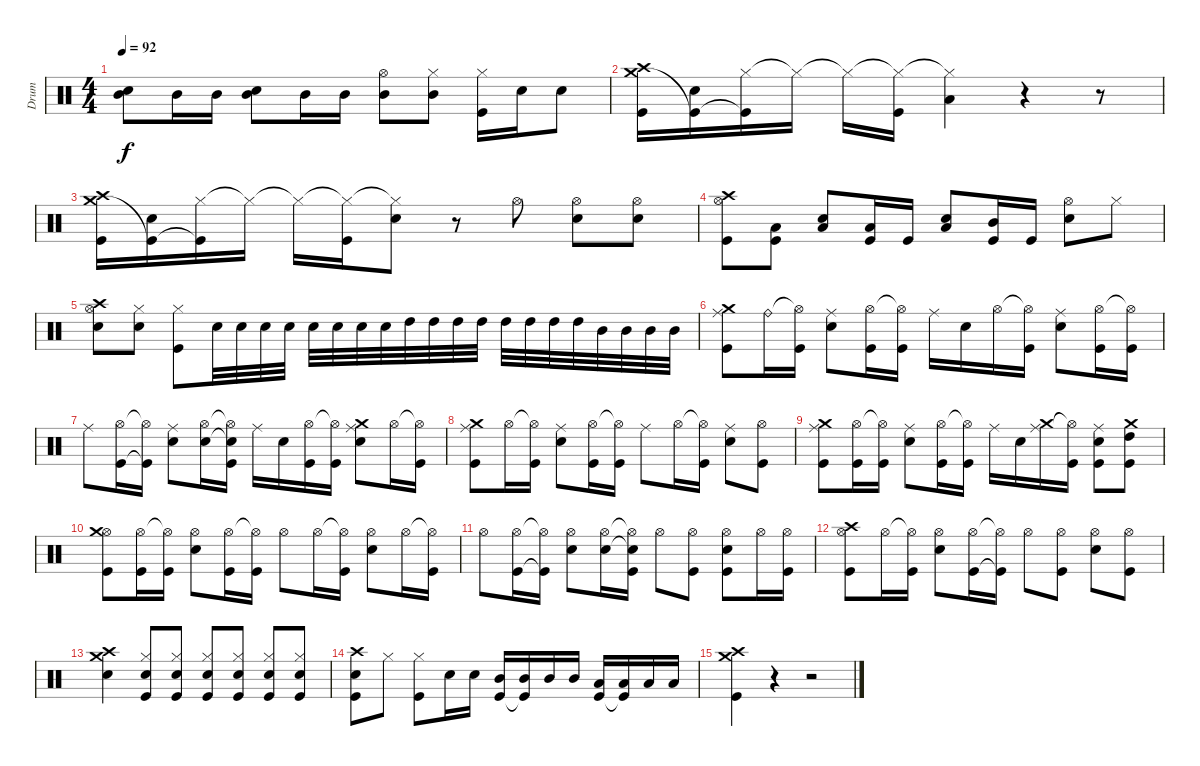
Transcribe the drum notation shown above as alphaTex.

\track ("Drum" "Drum") {instrument percussion}
\staff {score}
\articulation defaults
\ts (4 4)
\tempo 92
\clef neutral
\ks c
("Mid Tom (hit)" "Snare (hit) 2").8{dy f} "Mid Tom (hit)".16 "Mid Tom (hit)".16 ("Mid Tom (hit)" "Snare (hit) 2").8 "Mid Tom (hit)".16 "Mid Tom (hit)".16 ("Hi-Hat (open)" "Mid Tom (hit)").8 ("Hi-Hat (closed)" "Mid Tom (hit)").8 ("Hi-Hat (closed)" "Kick (hit)").16 "Snare (hit) 2".16 "Snare (hit) 2".8 |
("Crash high (hit)" "Crash medium (hit)" "Kick (hit)").16 ("Snare (hit) 2" "Kick (hit)"{t}).16 ("Hi-Hat (closed)" "Kick (hit)"{t}).16 "Hi-Hat (closed)"{t}.16 "Hi-Hat (closed)"{t}.16 ("Hi-Hat (closed)"{t} "Kick (hit)").16 ("Hi-Hat (closed)"{t} "Low Tom (hit)").4 r.4 r.8 |
("Crash high (hit)" "Crash medium (hit)" "Kick (hit)").16 ("Snare (hit) 2" "Kick (hit)"{t}).16 ("Hi-Hat (closed)" "Kick (hit)"{t}).16 "Hi-Hat (closed)"{t}.16 "Hi-Hat (closed)"{t}.16 ("Hi-Hat (closed)"{t} "Kick (hit)").16 ("Hi-Hat (closed)"{t} "Snare (hit) 2").8 r.8 "Hi-Hat (open)".8 ("Hi-Hat (open)" "Snare (hit) 2").8 ("Hi-Hat (open)" "Snare (hit) 2").8 |
("Crash high (hit)" "Hi-Hat (open)" "Kick (hit)").8 ("Low Tom (hit)" "Kick (hit)").8 ("Low Tom (hit)" "Snare (hit) 2").8 ("Low Tom (hit)" "Kick (hit)").16 "Kick (hit)".16 ("Low Tom (hit)" "Snare (hit) 2").8 ("Mid Tom (hit)" "Kick (hit)").16 "Kick (hit)".16 ("Hi-Hat (open)" "Snare (hit) 2").8 "Hi-Hat (closed)".8 |
("Crash high (hit)" "Hi-Hat (open)" "Snare (hit) 2").8 ("Hi-Hat (closed)" "Snare (hit) 2").8 ("Hi-Hat (closed)" "Kick (hit)").8 "Snare (hit) 2".32 "Snare (hit) 2".32 "Snare (hit) 2".32 "Snare (hit) 2".32 "Snare (hit) 2".32 "Snare (hit) 2".32 "Snare (hit) 2".32 "Snare (hit) 2".32 "High Tom (hit)".32 "High Tom (hit)".32 "High Tom (hit)".32 "High Tom (hit)".32 "High Tom (hit)".32 "High Tom (hit)".32 "High Tom (hit)".32 "High Tom (hit)".32 "Mid Tom (hit)".32 "Mid Tom (hit)".32 "Mid Tom (hit)".32 "Mid Tom (hit)".32 |
("Ride (middle)" "Crash medium (hit)" "Kick (hit)").8 "Ride (bell)".16 ("Hi-Hat (open)"{t} "Kick (hit)").16 ("Ride (middle)" "Snare (hit) 2").8 ("Hi-Hat (open)" "Kick (hit)").16 ("Hi-Hat (open)"{t} "Kick (hit)").16 "Ride (middle)".16 "Snare (hit) 2".16 "Hi-Hat (open)".16 ("Hi-Hat (open)"{t} "Kick (hit)").16 ("Ride (middle)" "Snare (hit) 2").8 ("Hi-Hat (open)" "Kick (hit)").16 ("Hi-Hat (open)"{t} "Kick (hit)").16 |
"Ride (middle)".8 ("Hi-Hat (open)" "Kick (hit)").16 ("Hi-Hat (open)"{t} "Kick (hit)"{t}).16 ("Ride (middle)" "Snare (hit) 2").8 ("Hi-Hat (open)" "Snare (hit) 2").16 ("Hi-Hat (open)"{t} "Snare (hit) 2"{t} "Kick (hit)").16 "Ride (middle)".16 "Snare (hit) 2".16 ("Hi-Hat (open)" "Kick (hit)").16 ("Hi-Hat (open)"{t} "Kick (hit)").16 ("Ride (middle)" "Crash medium (hit)" "Snare (hit) 2").8 "Hi-Hat (open)".16 ("Hi-Hat (open)"{t} "Kick (hit)").16 |
("Ride (middle)" "Crash medium (hit)" "Kick (hit)").8 "Hi-Hat (open)".16 ("Hi-Hat (open)"{t} "Kick (hit)").16 ("Ride (middle)" "Snare (hit) 2").8 ("Hi-Hat (open)" "Kick (hit)").16 ("Hi-Hat (open)"{t} "Kick (hit)").16 "Ride (middle)".8 "Hi-Hat (open)".16 ("Hi-Hat (open)"{t} "Kick (hit)").16 ("Ride (middle)" "Snare (hit) 2").8 ("Hi-Hat (open)" "Kick (hit)").8 |
("Ride (middle)" "Crash medium (hit)" "Kick (hit)").8 ("Hi-Hat (open)" "Kick (hit)").16 ("Hi-Hat (open)"{t} "Kick (hit)").16 ("Ride (middle)" "Snare (hit) 2").8 ("Hi-Hat (open)" "Kick (hit)").16 ("Hi-Hat (open)"{t} "Kick (hit)").16 "Ride (middle)".16 "Snare (hit) 2".16 ("Ride (middle)" "Crash medium (hit)").16 ("Hi-Hat (open)"{t} "Kick (hit)").16 ("Ride (middle)" "Snare (hit) 2" "Kick (hit)").8 ("Crash medium (hit)" "High Tom (hit)" "Kick (hit)").8 |
("Hi-Hat (open)" "Crash medium (hit)" "Kick (hit)").8 ("Hi-Hat (open)" "Kick (hit)").16 ("Hi-Hat (open)"{t} "Kick (hit)").16 ("Hi-Hat (open)" "Snare (hit) 2").8 ("Hi-Hat (open)" "Kick (hit)").16 ("Hi-Hat (open)"{t} "Kick (hit)").16 "Hi-Hat (open)".8 "Hi-Hat (open)".16 ("Hi-Hat (open)"{t} "Kick (hit)").16 ("Hi-Hat (open)" "Snare (hit) 2").8 "Hi-Hat (open)".16 ("Hi-Hat (open)"{t} "Kick (hit)").16 |
"Hi-Hat (open)".8 ("Hi-Hat (open)" "Kick (hit)").16 ("Hi-Hat (open)"{t} "Kick (hit)"{t}).16 ("Hi-Hat (open)" "Snare (hit) 2").8 ("Hi-Hat (open)" "Snare (hit) 2").16 ("Hi-Hat (open)"{t} "Snare (hit) 2"{t} "Kick (hit)").16 "Hi-Hat (open)".8 ("Hi-Hat (open)" "Kick (hit)").8 ("Hi-Hat (open)" "Snare (hit) 2" "Kick (hit)").8 "Hi-Hat (open)".16 ("Hi-Hat (open)" "Kick (hit)").16 |
("Hi-Hat (open)" "Crash high (hit)" "Kick (hit)").8 "Hi-Hat (open)".16 ("Hi-Hat (open)"{t} "Kick (hit)").16 ("Hi-Hat (open)" "Snare (hit) 2").8 ("Hi-Hat (open)" "Kick (hit)").16 ("Hi-Hat (open)"{t} "Kick (hit)"{t}).16 "Hi-Hat (open)".8 ("Hi-Hat (open)" "Kick (hit)").8 ("Hi-Hat (open)" "Snare (hit) 2").8 ("Hi-Hat (open)" "Kick (hit)").8 |
("Crash high (hit)" "Crash medium (hit)" "Snare (hit) 2").4 ("Hi-Hat (closed)" "Snare (hit) 2" "Kick (hit)").8 ("Hi-Hat (closed)" "Snare (hit) 2" "Kick (hit)").8 ("Hi-Hat (closed)" "Snare (hit) 2" "Kick (hit)").8 ("Hi-Hat (closed)" "Snare (hit) 2" "Kick (hit)").8 ("Hi-Hat (closed)" "Snare (hit) 2" "Kick (hit)").8 ("Hi-Hat (closed)" "Snare (hit) 2" "Kick (hit)").8 |
("Crash high (hit)" "Snare (hit) 2" "Kick (hit)").8 "Hi-Hat (closed)".8 ("Hi-Hat (closed)" "Kick (hit)").8 "Snare (hit) 2".16 "Snare (hit) 2".16 ("Mid Tom (hit)" "Kick (hit)").16 ("Mid Tom (hit)" "Kick (hit)"{t}).16 "Mid Tom (hit)".16 "Mid Tom (hit)".16 ("Low Tom (hit)" "Kick (hit)").16 ("Low Tom (hit)" "Kick (hit)"{t}).16 "Low Tom (hit)".16 "Low Tom (hit)".16 |
("Crash high (hit)" "Crash medium (hit)" "Kick (hit)").4 r.4 r.2
